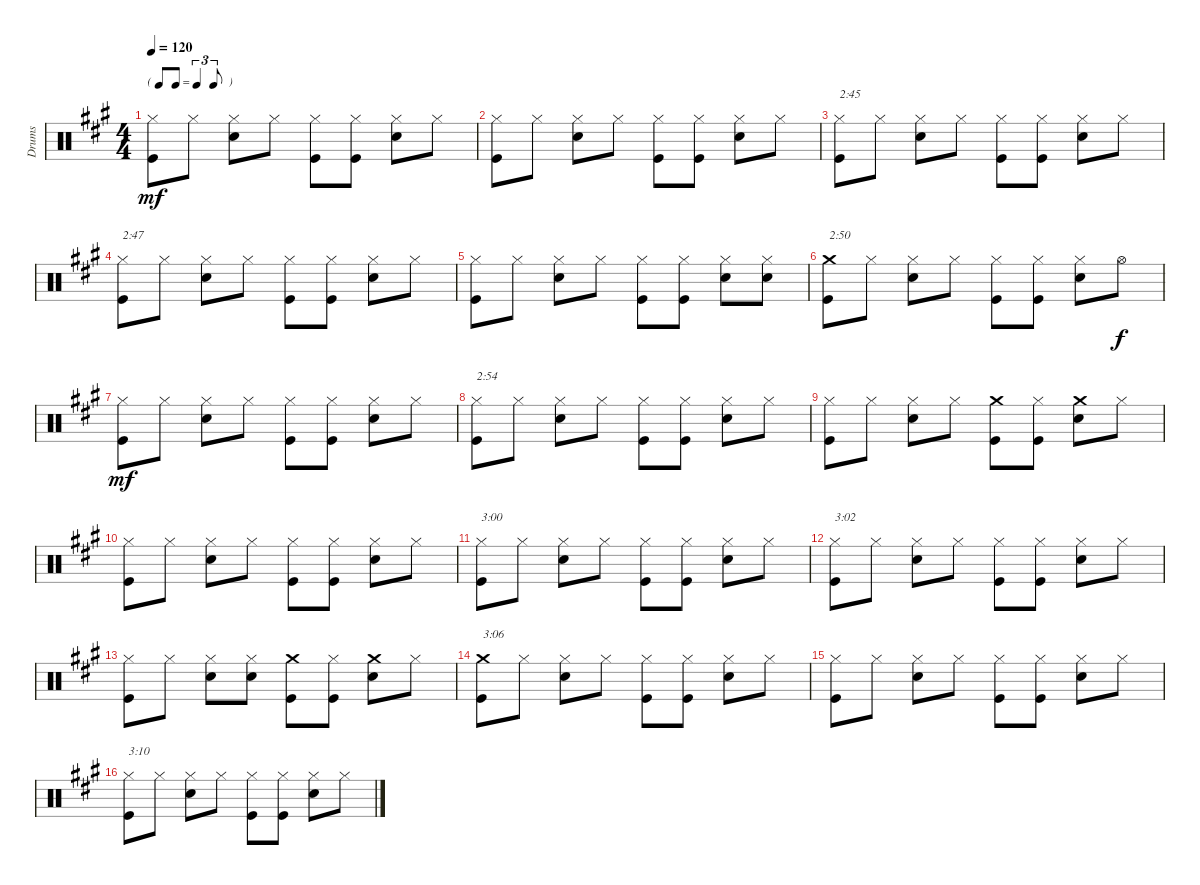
\track ("Drums" "Drums") {instrument percussion}
\staff {score}
\articulation defaults
\ts (4 4)
\tf triplet8th
\tempo 120
\clef neutral
\ks a
("Hi-Hat (closed)" "Kick (hit)").8{dy mf} "Hi-Hat (closed)".8 ("Hi-Hat (closed)" "Snare (hit) 2").8 "Hi-Hat (closed)".8 ("Hi-Hat (closed)" "Kick (hit)").8 ("Hi-Hat (closed)" "Kick (hit)").8 ("Hi-Hat (closed)" "Snare (hit) 2").8 "Hi-Hat (closed)".8 |
("Hi-Hat (closed)" "Kick (hit)").8 "Hi-Hat (closed)".8 ("Hi-Hat (closed)" "Snare (hit) 2").8 "Hi-Hat (closed)".8 ("Hi-Hat (closed)" "Kick (hit)").8 ("Hi-Hat (closed)" "Kick (hit)").8 ("Hi-Hat (closed)" "Snare (hit) 2").8 "Hi-Hat (closed)".8 |
("Hi-Hat (closed)" "Kick (hit)").8{txt "2:45"} "Hi-Hat (closed)".8 ("Hi-Hat (closed)" "Snare (hit) 2").8 "Hi-Hat (closed)".8 ("Hi-Hat (closed)" "Kick (hit)").8 ("Hi-Hat (closed)" "Kick (hit)").8 ("Hi-Hat (closed)" "Snare (hit) 2").8 "Hi-Hat (closed)".8 |
("Hi-Hat (closed)" "Kick (hit)").8{txt "2:47"} "Hi-Hat (closed)".8 ("Hi-Hat (closed)" "Snare (hit) 2").8 "Hi-Hat (closed)".8 ("Hi-Hat (closed)" "Kick (hit)").8 ("Hi-Hat (closed)" "Kick (hit)").8 ("Hi-Hat (closed)" "Snare (hit) 2").8 "Hi-Hat (closed)".8 |
("Hi-Hat (closed)" "Kick (hit)").8 "Hi-Hat (closed)".8 ("Hi-Hat (closed)" "Snare (hit) 2").8 "Hi-Hat (closed)".8 ("Hi-Hat (closed)" "Kick (hit)").8 ("Hi-Hat (closed)" "Kick (hit)").8 ("Hi-Hat (closed)" "Snare (hit) 2").8 ("Hi-Hat (closed)" "Snare (hit) 2").8 |
("Crash medium (hit)" "Kick (hit)").8{txt "2:50"} "Hi-Hat (closed)".8 ("Hi-Hat (closed)" "Snare (hit) 2").8 "Hi-Hat (closed)".8 ("Hi-Hat (closed)" "Kick (hit)").8 ("Hi-Hat (closed)" "Kick (hit)").8 ("Hi-Hat (closed)" "Snare (hit) 2").8 "Hi-Hat (open)".8{dy f} |
("Hi-Hat (closed)" "Kick (hit)").8{dy mf} "Hi-Hat (closed)".8 ("Hi-Hat (closed)" "Snare (hit) 2").8 "Hi-Hat (closed)".8 ("Hi-Hat (closed)" "Kick (hit)").8 ("Hi-Hat (closed)" "Kick (hit)").8 ("Hi-Hat (closed)" "Snare (hit) 2").8 "Hi-Hat (closed)".8 |
("Hi-Hat (closed)" "Kick (hit)").8{txt "2:54"} "Hi-Hat (closed)".8 ("Hi-Hat (closed)" "Snare (hit) 2").8 "Hi-Hat (closed)".8 ("Hi-Hat (closed)" "Kick (hit)").8 ("Hi-Hat (closed)" "Kick (hit)").8 ("Hi-Hat (closed)" "Snare (hit) 2").8 "Hi-Hat (closed)".8 |
("Hi-Hat (closed)" "Kick (hit)").8 "Hi-Hat (closed)".8 ("Hi-Hat (closed)" "Snare (hit) 2").8 "Hi-Hat (closed)".8 ("Crash medium (hit)" "Kick (hit)").8 ("Hi-Hat (closed)" "Kick (hit)").8 ("Crash medium (hit)" "Snare (hit) 2").8 "Hi-Hat (closed)".8 |
("Hi-Hat (closed)" "Kick (hit)").8 "Hi-Hat (closed)".8 ("Hi-Hat (closed)" "Snare (hit) 2").8 "Hi-Hat (closed)".8 ("Hi-Hat (closed)" "Kick (hit)").8 ("Hi-Hat (closed)" "Kick (hit)").8 ("Hi-Hat (closed)" "Snare (hit) 2").8 "Hi-Hat (closed)".8 |
("Hi-Hat (closed)" "Kick (hit)").8{txt "3:00"} "Hi-Hat (closed)".8 ("Hi-Hat (closed)" "Snare (hit) 2").8 "Hi-Hat (closed)".8 ("Hi-Hat (closed)" "Kick (hit)").8 ("Hi-Hat (closed)" "Kick (hit)").8 ("Hi-Hat (closed)" "Snare (hit) 2").8 "Hi-Hat (closed)".8 |
("Hi-Hat (closed)" "Kick (hit)").8{txt "3:02"} "Hi-Hat (closed)".8 ("Hi-Hat (closed)" "Snare (hit) 2").8 "Hi-Hat (closed)".8 ("Hi-Hat (closed)" "Kick (hit)").8 ("Hi-Hat (closed)" "Kick (hit)").8 ("Hi-Hat (closed)" "Snare (hit) 2").8 "Hi-Hat (closed)".8 |
("Hi-Hat (closed)" "Kick (hit)").8 "Hi-Hat (closed)".8 ("Hi-Hat (closed)" "Snare (hit) 2").8 ("Hi-Hat (closed)" "Snare (hit) 2").8 ("Crash medium (hit)" "Kick (hit)").8 ("Hi-Hat (closed)" "Kick (hit)").8 ("Crash medium (hit)" "Snare (hit) 2").8 "Hi-Hat (closed)".8 |
("Crash medium (hit)" "Kick (hit)").8{txt "3:06"} "Hi-Hat (closed)".8 ("Hi-Hat (closed)" "Snare (hit) 2").8 "Hi-Hat (closed)".8 ("Hi-Hat (closed)" "Kick (hit)").8 ("Hi-Hat (closed)" "Kick (hit)").8 ("Hi-Hat (closed)" "Snare (hit) 2").8 "Hi-Hat (closed)".8 |
("Hi-Hat (closed)" "Kick (hit)").8 "Hi-Hat (closed)".8 ("Hi-Hat (closed)" "Snare (hit) 2").8 "Hi-Hat (closed)".8 ("Hi-Hat (closed)" "Kick (hit)").8 ("Hi-Hat (closed)" "Kick (hit)").8 ("Hi-Hat (closed)" "Snare (hit) 2").8 "Hi-Hat (closed)".8 |
("Hi-Hat (closed)" "Kick (hit)").8{txt "3:10"} "Hi-Hat (closed)".8 ("Hi-Hat (closed)" "Snare (hit) 2").8 "Hi-Hat (closed)".8 ("Hi-Hat (closed)" "Kick (hit)").8 ("Hi-Hat (closed)" "Kick (hit)").8 ("Hi-Hat (closed)" "Snare (hit) 2").8 "Hi-Hat (closed)".8
